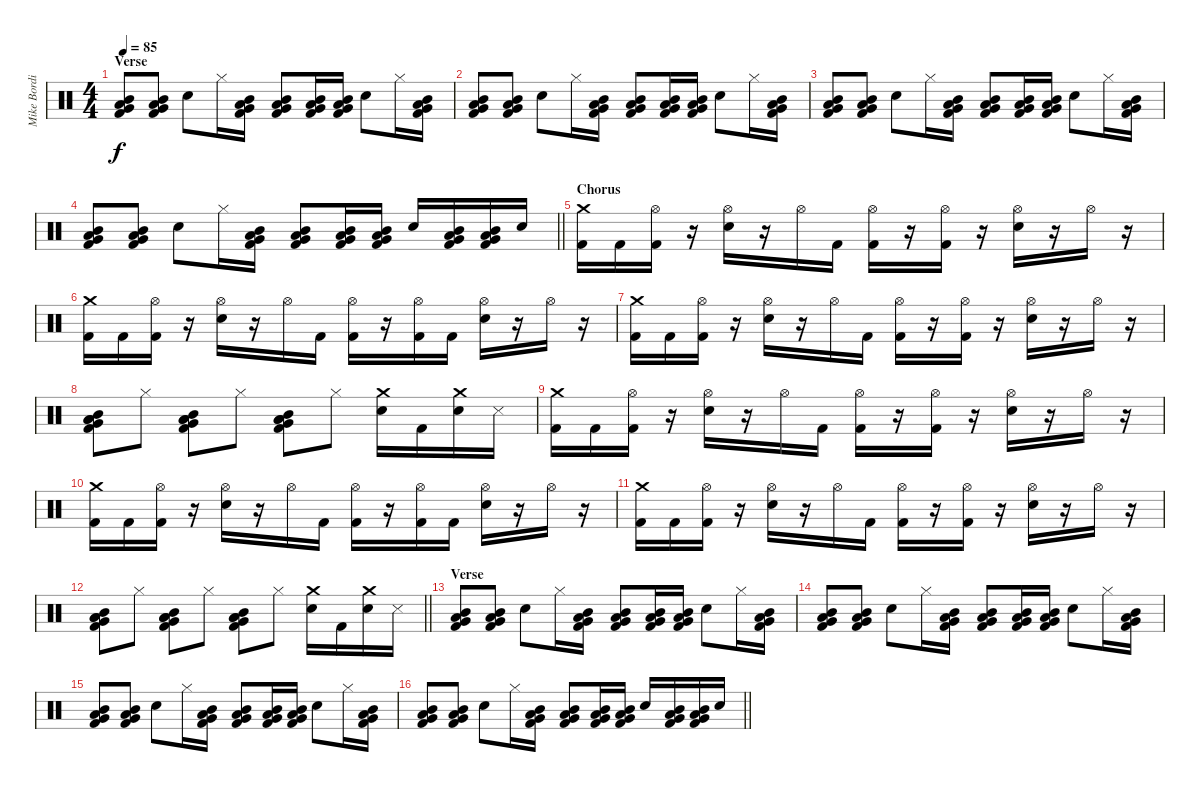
\track ("Mike Bordin (Drums)" "Mike Bordi") {instrument percussion}
\staff {score}
\articulation defaults
\ts (4 4)
\section ("" "Verse")
\tempo 85
\clef neutral
\ks c
("Mid Tom (hit)" "Low Tom (hit)" "Very Low Tom (hit)" "Kick (hit) 2").8{dy f} ("Mid Tom (hit)" "Low Tom (hit)" "Very Low Tom (hit)" "Kick (hit) 2").8 "Snare (hit) 2".8 "Hi-Hat (closed)".16 ("Mid Tom (hit)" "Low Tom (hit)" "Very Low Tom (hit)" "Kick (hit) 2").16 ("Mid Tom (hit)" "Low Tom (hit)" "Very Low Tom (hit)" "Kick (hit) 2").8 ("Mid Tom (hit)" "Low Tom (hit)" "Very Low Tom (hit)" "Kick (hit) 2").16 ("Mid Tom (hit)" "Low Tom (hit)" "Very Low Tom (hit)" "Kick (hit) 2").16 "Snare (hit) 2".8 "Hi-Hat (closed)".16 ("Mid Tom (hit)" "Low Tom (hit)" "Very Low Tom (hit)" "Kick (hit) 2").16 |
("Mid Tom (hit)" "Low Tom (hit)" "Very Low Tom (hit)" "Kick (hit) 2").8 ("Mid Tom (hit)" "Low Tom (hit)" "Very Low Tom (hit)" "Kick (hit) 2").8 "Snare (hit) 2".8 "Hi-Hat (closed)".16 ("Mid Tom (hit)" "Low Tom (hit)" "Very Low Tom (hit)" "Kick (hit) 2").16 ("Mid Tom (hit)" "Low Tom (hit)" "Very Low Tom (hit)" "Kick (hit) 2").8 ("Mid Tom (hit)" "Low Tom (hit)" "Very Low Tom (hit)" "Kick (hit) 2").16 ("Mid Tom (hit)" "Low Tom (hit)" "Very Low Tom (hit)" "Kick (hit) 2").16 "Snare (hit) 2".8 "Hi-Hat (closed)".16 ("Mid Tom (hit)" "Low Tom (hit)" "Very Low Tom (hit)" "Kick (hit) 2").16 |
("Mid Tom (hit)" "Low Tom (hit)" "Very Low Tom (hit)" "Kick (hit) 2").8 ("Mid Tom (hit)" "Low Tom (hit)" "Very Low Tom (hit)" "Kick (hit) 2").8 "Snare (hit) 2".8 "Hi-Hat (closed)".16 ("Mid Tom (hit)" "Low Tom (hit)" "Very Low Tom (hit)" "Kick (hit) 2").16 ("Mid Tom (hit)" "Low Tom (hit)" "Very Low Tom (hit)" "Kick (hit) 2").8 ("Mid Tom (hit)" "Low Tom (hit)" "Very Low Tom (hit)" "Kick (hit) 2").16 ("Mid Tom (hit)" "Low Tom (hit)" "Very Low Tom (hit)" "Kick (hit) 2").16 "Snare (hit) 2".8 "Hi-Hat (closed)".16 ("Mid Tom (hit)" "Low Tom (hit)" "Very Low Tom (hit)" "Kick (hit) 2").16 |
\barLineRight lightlight
("Mid Tom (hit)" "Low Tom (hit)" "Very Low Tom (hit)" "Kick (hit) 2").8 ("Mid Tom (hit)" "Low Tom (hit)" "Very Low Tom (hit)" "Kick (hit) 2").8 "Snare (hit) 2".8 "Hi-Hat (closed)".16 ("Mid Tom (hit)" "Low Tom (hit)" "Very Low Tom (hit)" "Kick (hit) 2").16 ("Mid Tom (hit)" "Low Tom (hit)" "Very Low Tom (hit)" "Kick (hit) 2").8 ("Mid Tom (hit)" "Low Tom (hit)" "Very Low Tom (hit)" "Kick (hit) 2").16 ("Mid Tom (hit)" "Low Tom (hit)" "Very Low Tom (hit)" "Kick (hit) 2").16 "Snare (hit) 2".16 ("Mid Tom (hit)" "Low Tom (hit)" "Very Low Tom (hit)" "Kick (hit) 2").16 ("Mid Tom (hit)" "Low Tom (hit)" "Very Low Tom (hit)" "Kick (hit) 2").16 "Snare (hit) 2".16 |
\section ("" "Chorus")
("Crash medium (hit)" "Kick (hit) 2").16 "Kick (hit) 2".16 ("Hi-Hat (open)" "Kick (hit) 2").16 r.16 ("Hi-Hat (open)" "Snare (hit) 2").16 r.16 "Hi-Hat (open)".16 "Kick (hit) 2".16 ("Hi-Hat (open)" "Kick (hit) 2").16 r.16 ("Hi-Hat (open)" "Kick (hit) 2").16 r.16 ("Hi-Hat (open)" "Snare (hit) 2").16 r.16 "Hi-Hat (open)".16 r.16 |
("Crash medium (hit)" "Kick (hit) 2").16 "Kick (hit) 2".16 ("Hi-Hat (open)" "Kick (hit) 2").16 r.16 ("Hi-Hat (open)" "Snare (hit) 2").16 r.16 "Hi-Hat (open)".16 "Kick (hit) 2".16 ("Hi-Hat (open)" "Kick (hit) 2").16 r.16 ("Hi-Hat (open)" "Kick (hit) 2").16 "Kick (hit) 2".16 ("Hi-Hat (open)" "Snare (hit) 2").16 r.16 "Hi-Hat (open)".16 r.16 |
("Crash medium (hit)" "Kick (hit) 2").16 "Kick (hit) 2".16 ("Hi-Hat (open)" "Kick (hit) 2").16 r.16 ("Hi-Hat (open)" "Snare (hit) 2").16 r.16 "Hi-Hat (open)".16 "Kick (hit) 2".16 ("Hi-Hat (open)" "Kick (hit) 2").16 r.16 ("Hi-Hat (open)" "Kick (hit) 2").16 r.16 ("Hi-Hat (open)" "Snare (hit) 2").16 r.16 "Hi-Hat (open)".16 r.16 |
("Mid Tom (hit)" "Low Floor Tom (hit)" "Very Low Tom (hit)" "Low Tom (hit)" "Kick (hit) 2").8 "Hi-Hat (closed)".8 ("Mid Tom (hit)" "Low Floor Tom (hit)" "Very Low Tom (hit)" "Low Tom (hit)" "Kick (hit) 2").8 "Hi-Hat (closed)".8 ("Mid Tom (hit)" "Low Floor Tom (hit)" "Very Low Tom (hit)" "Low Tom (hit)" "Kick (hit) 2").8 "Hi-Hat (closed)".8 ("Crash medium (hit)" "Snare (hit) 2").16 "Kick (hit) 2".16 ("Crash medium (hit)" "Snare (hit) 2").16 "Snare (side stick) 3".16 |
("Crash medium (hit)" "Kick (hit) 2").16 "Kick (hit) 2".16 ("Hi-Hat (open)" "Kick (hit) 2").16 r.16 ("Hi-Hat (open)" "Snare (hit) 2").16 r.16 "Hi-Hat (open)".16 "Kick (hit) 2".16 ("Hi-Hat (open)" "Kick (hit) 2").16 r.16 ("Hi-Hat (open)" "Kick (hit) 2").16 r.16 ("Hi-Hat (open)" "Snare (hit) 2").16 r.16 "Hi-Hat (open)".16 r.16 |
("Crash medium (hit)" "Kick (hit) 2").16 "Kick (hit) 2".16 ("Hi-Hat (open)" "Kick (hit) 2").16 r.16 ("Hi-Hat (open)" "Snare (hit) 2").16 r.16 "Hi-Hat (open)".16 "Kick (hit) 2".16 ("Hi-Hat (open)" "Kick (hit) 2").16 r.16 ("Hi-Hat (open)" "Kick (hit) 2").16 "Kick (hit) 2".16 ("Hi-Hat (open)" "Snare (hit) 2").16 r.16 "Hi-Hat (open)".16 r.16 |
("Crash medium (hit)" "Kick (hit) 2").16 "Kick (hit) 2".16 ("Hi-Hat (open)" "Kick (hit) 2").16 r.16 ("Hi-Hat (open)" "Snare (hit) 2").16 r.16 "Hi-Hat (open)".16 "Kick (hit) 2".16 ("Hi-Hat (open)" "Kick (hit) 2").16 r.16 ("Hi-Hat (open)" "Kick (hit) 2").16 r.16 ("Hi-Hat (open)" "Snare (hit) 2").16 r.16 "Hi-Hat (open)".16 r.16 |
\barLineRight lightlight
("Mid Tom (hit)" "Low Floor Tom (hit)" "Very Low Tom (hit)" "Low Tom (hit)" "Kick (hit) 2").8 "Hi-Hat (closed)".8 ("Mid Tom (hit)" "Low Floor Tom (hit)" "Very Low Tom (hit)" "Low Tom (hit)" "Kick (hit) 2").8 "Hi-Hat (closed)".8 ("Mid Tom (hit)" "Low Floor Tom (hit)" "Very Low Tom (hit)" "Low Tom (hit)" "Kick (hit) 2").8 "Hi-Hat (closed)".8 ("Crash medium (hit)" "Snare (hit) 2").16 "Kick (hit) 2".16 ("Crash medium (hit)" "Snare (hit) 2").16 "Snare (side stick) 3".16 |
\section ("" "Verse")
("Mid Tom (hit)" "Low Tom (hit)" "Very Low Tom (hit)" "Kick (hit) 2").8 ("Mid Tom (hit)" "Low Tom (hit)" "Very Low Tom (hit)" "Kick (hit) 2").8 "Snare (hit) 2".8 "Hi-Hat (closed)".16 ("Mid Tom (hit)" "Low Tom (hit)" "Very Low Tom (hit)" "Kick (hit) 2").16 ("Mid Tom (hit)" "Low Tom (hit)" "Very Low Tom (hit)" "Kick (hit) 2").8 ("Mid Tom (hit)" "Low Tom (hit)" "Very Low Tom (hit)" "Kick (hit) 2").16 ("Mid Tom (hit)" "Low Tom (hit)" "Very Low Tom (hit)" "Kick (hit) 2").16 "Snare (hit) 2".8 "Hi-Hat (closed)".16 ("Mid Tom (hit)" "Low Tom (hit)" "Very Low Tom (hit)" "Kick (hit) 2").16 |
("Mid Tom (hit)" "Low Tom (hit)" "Very Low Tom (hit)" "Kick (hit) 2").8 ("Mid Tom (hit)" "Low Tom (hit)" "Very Low Tom (hit)" "Kick (hit) 2").8 "Snare (hit) 2".8 "Hi-Hat (closed)".16 ("Mid Tom (hit)" "Low Tom (hit)" "Very Low Tom (hit)" "Kick (hit) 2").16 ("Mid Tom (hit)" "Low Tom (hit)" "Very Low Tom (hit)" "Kick (hit) 2").8 ("Mid Tom (hit)" "Low Tom (hit)" "Very Low Tom (hit)" "Kick (hit) 2").16 ("Mid Tom (hit)" "Low Tom (hit)" "Very Low Tom (hit)" "Kick (hit) 2").16 "Snare (hit) 2".8 "Hi-Hat (closed)".16 ("Mid Tom (hit)" "Low Tom (hit)" "Very Low Tom (hit)" "Kick (hit) 2").16 |
("Mid Tom (hit)" "Low Tom (hit)" "Very Low Tom (hit)" "Kick (hit) 2").8 ("Mid Tom (hit)" "Low Tom (hit)" "Very Low Tom (hit)" "Kick (hit) 2").8 "Snare (hit) 2".8 "Hi-Hat (closed)".16 ("Mid Tom (hit)" "Low Tom (hit)" "Very Low Tom (hit)" "Kick (hit) 2").16 ("Mid Tom (hit)" "Low Tom (hit)" "Very Low Tom (hit)" "Kick (hit) 2").8 ("Mid Tom (hit)" "Low Tom (hit)" "Very Low Tom (hit)" "Kick (hit) 2").16 ("Mid Tom (hit)" "Low Tom (hit)" "Very Low Tom (hit)" "Kick (hit) 2").16 "Snare (hit) 2".8 "Hi-Hat (closed)".16 ("Mid Tom (hit)" "Low Tom (hit)" "Very Low Tom (hit)" "Kick (hit) 2").16 |
\barLineRight lightlight
("Mid Tom (hit)" "Low Tom (hit)" "Very Low Tom (hit)" "Kick (hit) 2").8 ("Mid Tom (hit)" "Low Tom (hit)" "Very Low Tom (hit)" "Kick (hit) 2").8 "Snare (hit) 2".8 "Hi-Hat (closed)".16 ("Mid Tom (hit)" "Low Tom (hit)" "Very Low Tom (hit)" "Kick (hit) 2").16 ("Mid Tom (hit)" "Low Tom (hit)" "Very Low Tom (hit)" "Kick (hit) 2").8 ("Mid Tom (hit)" "Low Tom (hit)" "Very Low Tom (hit)" "Kick (hit) 2").16 ("Mid Tom (hit)" "Low Tom (hit)" "Very Low Tom (hit)" "Kick (hit) 2").16 "Snare (hit) 2".16 ("Mid Tom (hit)" "Low Tom (hit)" "Very Low Tom (hit)" "Kick (hit) 2").16 ("Mid Tom (hit)" "Low Tom (hit)" "Very Low Tom (hit)" "Kick (hit) 2").16 "Snare (hit) 2".16
